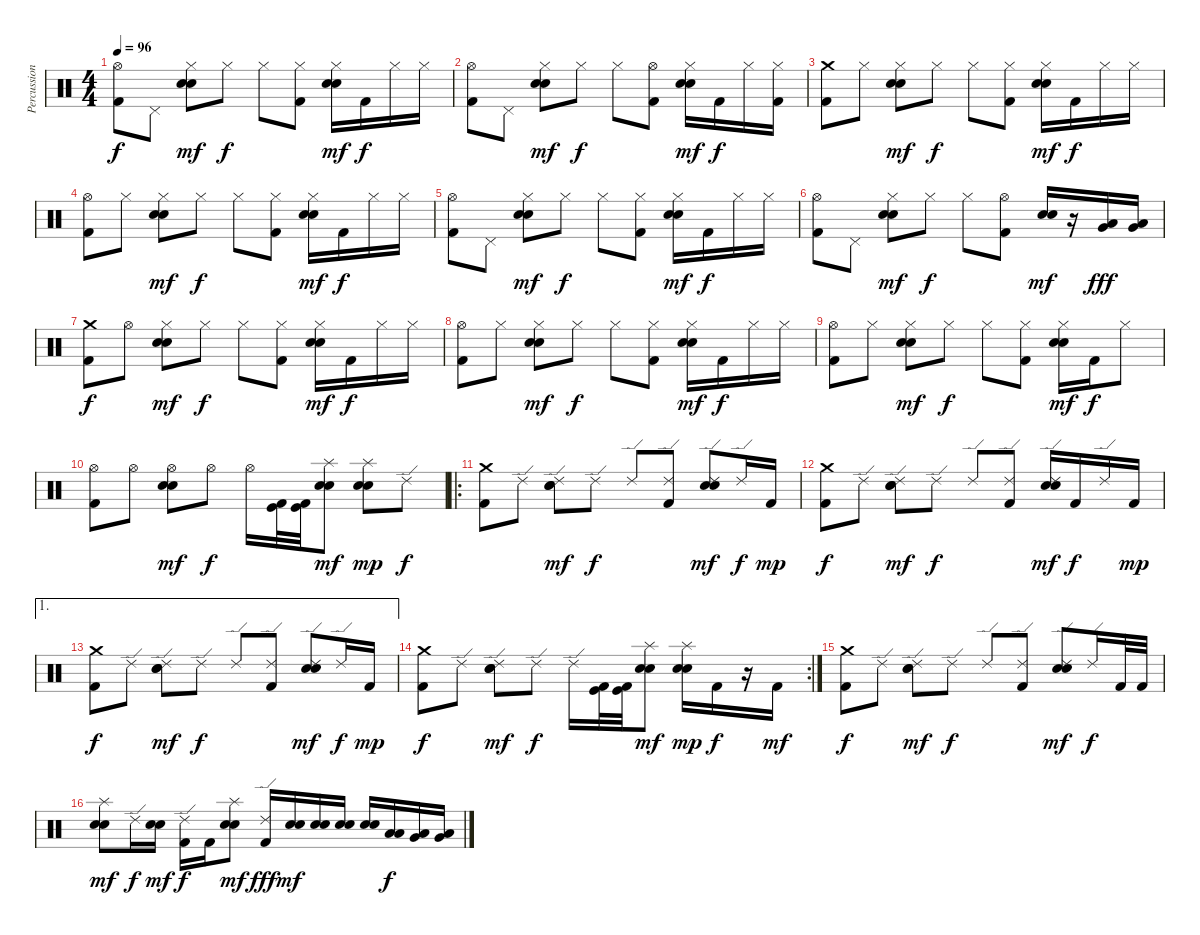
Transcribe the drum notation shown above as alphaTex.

\track ("Percussions" "Percussion") {instrument percussion}
\staff {score}
\articulation defaults
\ts (4 4)
\tempo 96
\clef neutral
\ks c
("Hi-Hat (open)" "Kick (hit) 2").8{dy f} "Pedal Hi-Hat (hit)".8 ("Hi-Hat (closed)" "Snare (hit) 2" "Electric Snare (hit)").8{dy mf} "Hi-Hat (closed)".8{dy f} "Hi-Hat (closed)".8 ("Hi-Hat (closed)" "Kick (hit) 2").8 ("Hi-Hat (closed)" "Snare (hit) 2" "Electric Snare (hit)").16{dy mf} "Kick (hit) 2".16{dy f} "Hi-Hat (closed)".16 "Hi-Hat (closed)".16 |
("Hi-Hat (open)" "Kick (hit) 2").8 "Pedal Hi-Hat (hit)".8 ("Hi-Hat (closed)" "Snare (hit) 2" "Electric Snare (hit)").8{dy mf} "Hi-Hat (closed)".8{dy f} "Hi-Hat (closed)".8 ("Hi-Hat (open)" "Kick (hit) 2").8 ("Hi-Hat (closed)" "Snare (hit) 2" "Electric Snare (hit)").16{dy mf} "Kick (hit) 2".16{dy f} "Hi-Hat (closed)".16 ("Hi-Hat (closed)" "Kick (hit) 2").16 |
("Crash medium (hit)" "Kick (hit) 2").8 "Hi-Hat (closed)".8 ("Hi-Hat (closed)" "Snare (hit) 2" "Electric Snare (hit)").8{dy mf} "Hi-Hat (closed)".8{dy f} "Hi-Hat (closed)".8 ("Hi-Hat (closed)" "Kick (hit) 2").8 ("Hi-Hat (closed)" "Snare (hit) 2" "Electric Snare (hit)").16{dy mf} "Kick (hit) 2".16{dy f} "Hi-Hat (closed)".16 "Hi-Hat (closed)".16 |
("Hi-Hat (open)" "Kick (hit) 2").8 "Hi-Hat (closed)".8 ("Hi-Hat (closed)" "Snare (hit) 2" "Electric Snare (hit)").8{dy mf} "Hi-Hat (closed)".8{dy f} "Hi-Hat (closed)".8 ("Hi-Hat (closed)" "Kick (hit) 2").8 ("Hi-Hat (closed)" "Snare (hit) 2" "Electric Snare (hit)").16{dy mf} "Kick (hit) 2".16{dy f} "Hi-Hat (closed)".16 "Hi-Hat (closed)".16 |
("Hi-Hat (open)" "Kick (hit) 2").8 "Pedal Hi-Hat (hit)".8 ("Hi-Hat (closed)" "Snare (hit) 2" "Electric Snare (hit)").8{dy mf} "Hi-Hat (closed)".8{dy f} "Hi-Hat (closed)".8 ("Hi-Hat (closed)" "Kick (hit) 2").8 ("Hi-Hat (closed)" "Snare (hit) 2" "Electric Snare (hit)").16{dy mf} "Kick (hit) 2".16{dy f} "Hi-Hat (closed)".16 "Hi-Hat (closed)".16 |
("Hi-Hat (open)" "Kick (hit) 2").8 "Pedal Hi-Hat (hit)".8 ("Hi-Hat (closed)" "Snare (hit) 2" "Electric Snare (hit)").8{dy mf} "Hi-Hat (closed)".8{dy f} "Hi-Hat (closed)".8 ("Hi-Hat (open)" "Kick (hit) 2").8 ("Snare (hit) 2" "Electric Snare (hit)").16{dy mf} r.16 ("Low Tom (hit)" "Very Low Tom (hit)").16{dy fff} ("Low Tom (hit)" "Very Low Tom (hit)").16 |
("Crash medium (hit)" "Kick (hit) 2").8{dy f} "Hi-Hat (open)".8 ("Hi-Hat (closed)" "Snare (hit) 2" "Electric Snare (hit)").8{dy mf} "Hi-Hat (closed)".8{dy f} "Hi-Hat (closed)".8 ("Hi-Hat (closed)" "Kick (hit) 2").8 ("Hi-Hat (closed)" "Snare (hit) 2" "Electric Snare (hit)").16{dy mf} "Kick (hit) 2".16{dy f} "Hi-Hat (closed)".16 "Hi-Hat (closed)".16 |
("Hi-Hat (open)" "Kick (hit) 2").8 "Hi-Hat (closed)".8 ("Hi-Hat (closed)" "Snare (hit) 2" "Electric Snare (hit)").8{dy mf} "Hi-Hat (closed)".8{dy f} "Hi-Hat (closed)".8 ("Hi-Hat (closed)" "Kick (hit) 2").8 ("Hi-Hat (closed)" "Snare (hit) 2" "Electric Snare (hit)").16{dy mf} "Kick (hit) 2".16{dy f} "Hi-Hat (closed)".16 "Hi-Hat (closed)".16 |
("Hi-Hat (open)" "Kick (hit) 2").8 "Hi-Hat (closed)".8 ("Hi-Hat (closed)" "Snare (hit) 2" "Electric Snare (hit)").8{dy mf} "Hi-Hat (closed)".8{dy f} "Hi-Hat (closed)".8 ("Hi-Hat (closed)" "Kick (hit) 2").8 ("Hi-Hat (closed)" "Snare (hit) 2" "Electric Snare (hit)").16{dy mf} "Kick (hit) 2".16{dy f} "Hi-Hat (closed)".8 |
("Hi-Hat (open)" "Kick (hit) 2").8 "Hi-Hat (open)".8 ("Hi-Hat (open)" "Snare (hit) 2" "Electric Snare (hit)").8{dy mf} "Hi-Hat (open)".8{dy f} "Hi-Hat (open)".16 ("Kick (hit)" "Kick (hit) 2").32 ("Kick (hit)" "Kick (hit) 2").32 ("Splash (hit)" "Snare (hit) 2" "Electric Snare (hit)").8{dy mf} ("Splash (hit)" "Snare (hit) 2" "Electric Snare (hit)").8{dy mp} "Ride (edge) 2".8{dy f} |
\ro
("Crash medium (hit)" "Kick (hit) 2").8 "Ride (edge) 2".8 ("Ride (edge) 2" "Snare (hit) 2" "Electric Snare (hit)").8{dy mf} "Ride (edge) 2".8{dy f} "Ride (edge) 2".8 ("Ride (edge) 2" "Kick (hit) 2").8 ("Ride (edge) 2" "Snare (hit) 2" "Electric Snare (hit)").8{dy mf} "Ride (edge) 2".16{dy f} "Kick (hit) 2".16{dy mp} |
("Crash medium (hit)" "Kick (hit) 2").8{dy f} "Ride (edge) 2".8 ("Ride (edge) 2" "Snare (hit) 2" "Electric Snare (hit)").8{dy mf} "Ride (edge) 2".8{dy f} "Ride (edge) 2".8 ("Ride (edge) 2" "Kick (hit) 2").8 ("Ride (edge) 2" "Snare (hit) 2" "Electric Snare (hit)").16{dy mf} "Kick (hit) 2".16{dy f} "Ride (edge) 2".16 "Kick (hit) 2".16{dy mp} |
\ae 1
("Crash medium (hit)" "Kick (hit) 2").8{dy f} "Ride (edge) 2".8 ("Ride (edge) 2" "Snare (hit) 2" "Electric Snare (hit)").8{dy mf} "Ride (edge) 2".8{dy f} "Ride (edge) 2".8 ("Ride (edge) 2" "Kick (hit) 2").8 ("Ride (edge) 2" "Snare (hit) 2" "Electric Snare (hit)").8{dy mf} "Ride (edge) 2".16{dy f} "Kick (hit) 2".16{dy mp} |
\rc 2
("Crash medium (hit)" "Kick (hit) 2").8{dy f} "Ride (edge) 2".8 ("Ride (edge) 2" "Snare (hit) 2" "Electric Snare (hit)").8{dy mf} "Ride (edge) 2".8{dy f} "Ride (edge) 2".16 ("Kick (hit)" "Kick (hit) 2").32 ("Kick (hit)" "Kick (hit) 2").32 ("Splash (hit)" "Snare (hit) 2" "Electric Snare (hit)").8{dy mf} ("Splash (hit)" "Snare (hit) 2" "Electric Snare (hit)").16{dy mp} "Kick (hit) 2".16{dy f} r.16 "Kick (hit) 2".16{dy mf} |
("Crash medium (hit)" "Kick (hit) 2").8{dy f} "Ride (edge) 2".8 ("Ride (edge) 2" "Snare (hit) 2" "Electric Snare (hit)").8{dy mf} "Ride (edge) 2".8{dy f} "Ride (edge) 2".8 ("Ride (edge) 2" "Kick (hit) 2").8 ("Ride (edge) 2" "Snare (hit) 2" "Electric Snare (hit)").8{dy mf} "Ride (edge) 2".16{dy f} "Kick (hit) 2".32 "Kick (hit) 2".32 |
("Splash (hit)" "Snare (hit) 2" "Electric Snare (hit)").8{dy mf} "Ride (edge) 2".16{dy f} ("Snare (hit) 2" "Electric Snare (hit)").16{dy mf} ("Ride (edge) 2" "Kick (hit) 2").16{dy f} "Kick (hit) 2".16 ("Splash (hit)" "Snare (hit) 2" "Electric Snare (hit)").8{dy mf} ("Ride (edge) 2" "Kick (hit) 2").16{dy fff} ("Snare (hit) 2" "Electric Snare (hit)").16{dy mf} ("Snare (hit) 2" "Electric Snare (hit)").16 ("Snare (hit) 2" "Electric Snare (hit)").16 ("Snare (hit) 2" "Electric Snare (hit)").16 ("Low Tom (hit)" "Low Tom (hit)").16{dy f} ("Low Tom (hit)" "Very Low Tom (hit)").16 ("Very Low Tom (hit)" "Low Floor Tom (hit)").16
